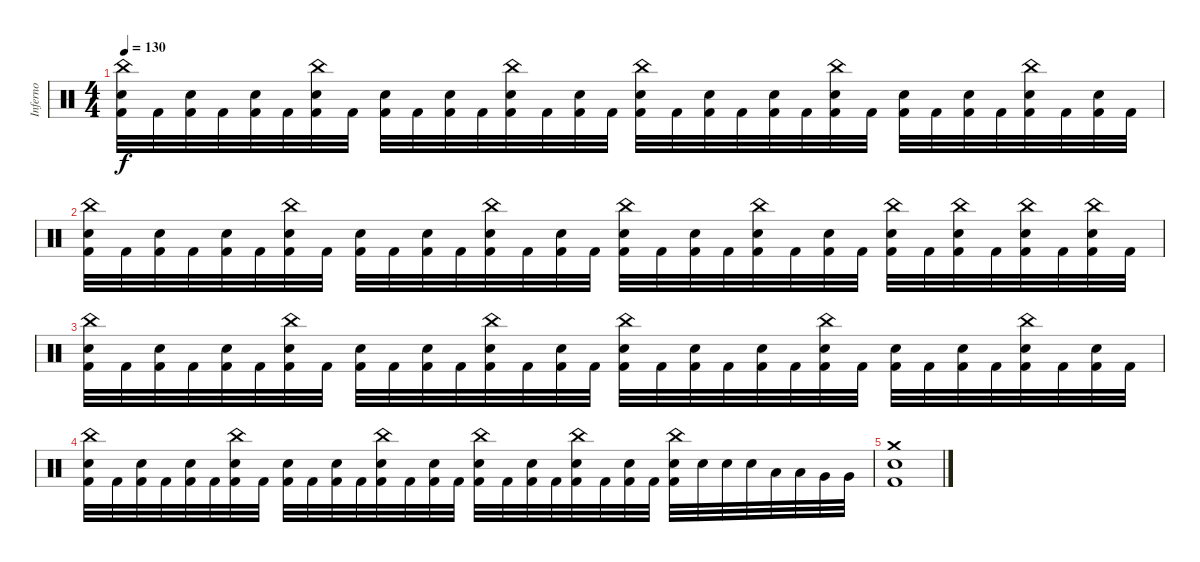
\track ("Inferno" "Inferno") {instrument percussion}
\staff {score}
\articulation defaults
\ts (4 4)
\tempo 130
\clef neutral
\ks c
("China (hit)" "Snare (hit) 2" "Kick (hit) 2").32{dy f} "Kick (hit) 2".32 ("Snare (hit) 2" "Kick (hit) 2").32 "Kick (hit) 2".32 ("Snare (hit) 2" "Kick (hit) 2").32 "Kick (hit) 2".32 ("China (hit)" "Snare (hit) 2" "Kick (hit) 2").32 "Kick (hit) 2".32 ("Snare (hit) 2" "Kick (hit) 2").32 "Kick (hit) 2".32 ("Snare (hit) 2" "Kick (hit) 2").32 "Kick (hit) 2".32 ("China (hit)" "Snare (hit) 2" "Kick (hit) 2").32 "Kick (hit) 2".32 ("Snare (hit) 2" "Kick (hit) 2").32 "Kick (hit) 2".32 ("China (hit)" "Snare (hit) 2" "Kick (hit) 2").32 "Kick (hit) 2".32 ("Snare (hit) 2" "Kick (hit) 2").32 "Kick (hit) 2".32 ("Snare (hit) 2" "Kick (hit) 2").32 "Kick (hit) 2".32 ("China (hit)" "Snare (hit) 2" "Kick (hit) 2").32 "Kick (hit) 2".32 ("Snare (hit) 2" "Kick (hit) 2").32 "Kick (hit) 2".32 ("Snare (hit) 2" "Kick (hit) 2").32 "Kick (hit) 2".32 ("China (hit)" "Snare (hit) 2" "Kick (hit) 2").32 "Kick (hit) 2".32 ("Snare (hit) 2" "Kick (hit) 2").32 "Kick (hit) 2".32 |
("China (hit)" "Snare (hit) 2" "Kick (hit) 2").32 "Kick (hit) 2".32 ("Snare (hit) 2" "Kick (hit) 2").32 "Kick (hit) 2".32 ("Snare (hit) 2" "Kick (hit) 2").32 "Kick (hit) 2".32 ("China (hit)" "Snare (hit) 2" "Kick (hit) 2").32 "Kick (hit) 2".32 ("Snare (hit) 2" "Kick (hit) 2").32 "Kick (hit) 2".32 ("Snare (hit) 2" "Kick (hit) 2").32 "Kick (hit) 2".32 ("China (hit)" "Snare (hit) 2" "Kick (hit) 2").32 "Kick (hit) 2".32 ("Snare (hit) 2" "Kick (hit) 2").32 "Kick (hit) 2".32 ("China (hit)" "Snare (hit) 2" "Kick (hit) 2").32 "Kick (hit) 2".32 ("Snare (hit) 2" "Kick (hit) 2").32 "Kick (hit) 2".32 ("China (hit)" "Snare (hit) 2" "Kick (hit) 2").32 "Kick (hit) 2".32 ("Snare (hit) 2" "Kick (hit) 2").32 "Kick (hit) 2".32 ("China (hit)" "Snare (hit) 2" "Kick (hit) 2").32 "Kick (hit) 2".32 ("China (hit)" "Snare (hit) 2" "Kick (hit) 2").32 "Kick (hit) 2".32 ("China (hit)" "Snare (hit) 2" "Kick (hit) 2").32 "Kick (hit) 2".32 ("China (hit)" "Snare (hit) 2" "Kick (hit) 2").32 "Kick (hit) 2".32 |
("China (hit)" "Snare (hit) 2" "Kick (hit) 2").32 "Kick (hit) 2".32 ("Snare (hit) 2" "Kick (hit) 2").32 "Kick (hit) 2".32 ("Snare (hit) 2" "Kick (hit) 2").32 "Kick (hit) 2".32 ("China (hit)" "Snare (hit) 2" "Kick (hit) 2").32 "Kick (hit) 2".32 ("Snare (hit) 2" "Kick (hit) 2").32 "Kick (hit) 2".32 ("Snare (hit) 2" "Kick (hit) 2").32 "Kick (hit) 2".32 ("China (hit)" "Snare (hit) 2" "Kick (hit) 2").32 "Kick (hit) 2".32 ("Snare (hit) 2" "Kick (hit) 2").32 "Kick (hit) 2".32 ("China (hit)" "Snare (hit) 2" "Kick (hit) 2").32 "Kick (hit) 2".32 ("Snare (hit) 2" "Kick (hit) 2").32 "Kick (hit) 2".32 ("Snare (hit) 2" "Kick (hit) 2").32 "Kick (hit) 2".32 ("China (hit)" "Snare (hit) 2" "Kick (hit) 2").32 "Kick (hit) 2".32 ("Snare (hit) 2" "Kick (hit) 2").32 "Kick (hit) 2".32 ("Snare (hit) 2" "Kick (hit) 2").32 "Kick (hit) 2".32 ("China (hit)" "Snare (hit) 2" "Kick (hit) 2").32 "Kick (hit) 2".32 ("Snare (hit) 2" "Kick (hit) 2").32 "Kick (hit) 2".32 |
("China (hit)" "Snare (hit) 2" "Kick (hit) 2").32 "Kick (hit) 2".32 ("Snare (hit) 2" "Kick (hit) 2").32 "Kick (hit) 2".32 ("Snare (hit) 2" "Kick (hit) 2").32 "Kick (hit) 2".32 ("China (hit)" "Snare (hit) 2" "Kick (hit) 2").32 "Kick (hit) 2".32 ("Snare (hit) 2" "Kick (hit) 2").32 "Kick (hit) 2".32 ("Snare (hit) 2" "Kick (hit) 2").32 "Kick (hit) 2".32 ("China (hit)" "Snare (hit) 2" "Kick (hit) 2").32 "Kick (hit) 2".32 ("Snare (hit) 2" "Kick (hit) 2").32 "Kick (hit) 2".32 ("China (hit)" "Snare (hit) 2" "Kick (hit) 2").32 "Kick (hit) 2".32 ("Snare (hit) 2" "Kick (hit) 2").32 "Kick (hit) 2".32 ("China (hit)" "Snare (hit) 2" "Kick (hit) 2").32 "Kick (hit) 2".32 ("Snare (hit) 2" "Kick (hit) 2").32 "Kick (hit) 2".32 ("China (hit)" "Snare (hit) 2" "Kick (hit) 2").32 "Snare (hit) 2".32 "Snare (hit) 2".32 "Snare (hit) 2".32 "Low Tom (hit)".32 "Low Tom (hit)".32 "Very Low Tom (hit)".32 "Very Low Tom (hit)".32 |
("Crash medium (hit)" "Snare (hit) 2" "Kick (hit) 2").1
